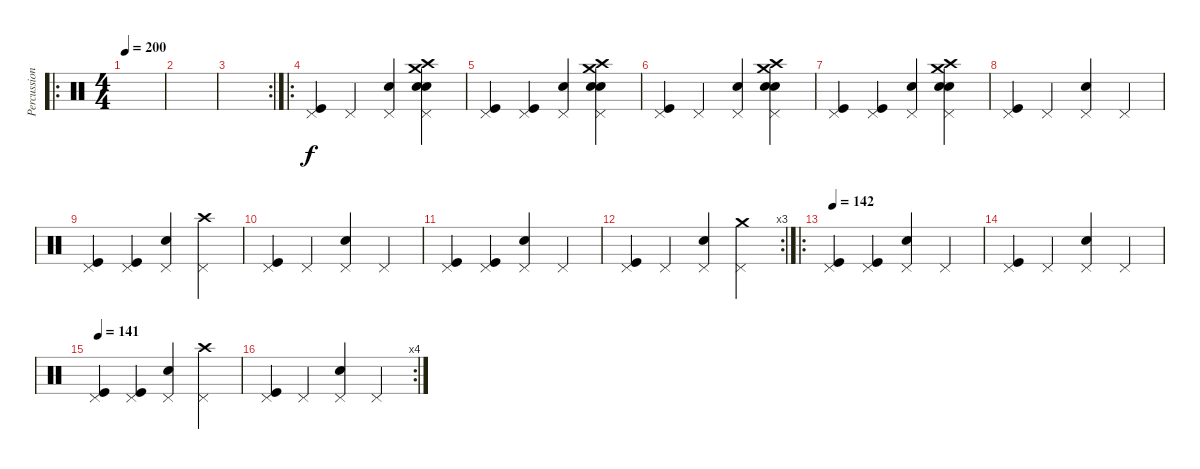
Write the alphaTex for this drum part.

\track ("Percussions" "Percussion") {instrument percussion}
\staff {score}
\articulation defaults
\ro
\ts (4 4)
\tempo 200
\clef neutral
\ks c
|
|
\rc 2
|
\ro
("Kick (hit)" "Pedal Hi-Hat (hit)").4 "Pedal Hi-Hat (hit)".4 ("Electric Snare (hit)" "Pedal Hi-Hat (hit)").4 ("Pedal Hi-Hat (hit)" "Electric Snare (hit)" "Snare (hit) 2" "Crash medium (hit)" "Crash high (hit)").4 |
("Kick (hit)" "Pedal Hi-Hat (hit)").4 ("Kick (hit)" "Pedal Hi-Hat (hit)").4 ("Electric Snare (hit)" "Pedal Hi-Hat (hit)").4 ("Pedal Hi-Hat (hit)" "Electric Snare (hit)" "Snare (hit) 2" "Crash medium (hit)" "Crash high (hit)").4 |
("Kick (hit)" "Pedal Hi-Hat (hit)").4 "Pedal Hi-Hat (hit)".4 ("Electric Snare (hit)" "Pedal Hi-Hat (hit)").4 ("Pedal Hi-Hat (hit)" "Electric Snare (hit)" "Snare (hit) 2" "Crash high (hit)" "Crash medium (hit)").4 |
("Kick (hit)" "Pedal Hi-Hat (hit)").4 ("Kick (hit)" "Pedal Hi-Hat (hit)").4 ("Electric Snare (hit)" "Pedal Hi-Hat (hit)").4 ("Pedal Hi-Hat (hit)" "Snare (hit) 2" "Electric Snare (hit)" "Crash high (hit)" "Crash medium (hit)").4 |
("Kick (hit)" "Pedal Hi-Hat (hit)").4 "Pedal Hi-Hat (hit)".4 ("Electric Snare (hit)" "Pedal Hi-Hat (hit)").4 "Pedal Hi-Hat (hit)".4 |
("Kick (hit)" "Pedal Hi-Hat (hit)").4 ("Kick (hit)" "Pedal Hi-Hat (hit)").4 ("Electric Snare (hit)" "Pedal Hi-Hat (hit)").4 ("Pedal Hi-Hat (hit)" "Crash high (hit)").4 |
("Kick (hit)" "Pedal Hi-Hat (hit)").4 "Pedal Hi-Hat (hit)".4 ("Electric Snare (hit)" "Pedal Hi-Hat (hit)").4 "Pedal Hi-Hat (hit)".4 |
("Kick (hit)" "Pedal Hi-Hat (hit)").4 ("Kick (hit)" "Pedal Hi-Hat (hit)").4 ("Electric Snare (hit)" "Pedal Hi-Hat (hit)").4 "Pedal Hi-Hat (hit)".4 |
\rc 3
("Kick (hit)" "Pedal Hi-Hat (hit)").4 "Pedal Hi-Hat (hit)".4 ("Electric Snare (hit)" "Pedal Hi-Hat (hit)").4 ("Pedal Hi-Hat (hit)" "Crash medium (hit)").4 |
\ro
\tempo 142
("Kick (hit)" "Pedal Hi-Hat (hit)").4 ("Kick (hit)" "Pedal Hi-Hat (hit)").4 ("Electric Snare (hit)" "Pedal Hi-Hat (hit)").4 "Pedal Hi-Hat (hit)".4 |
("Kick (hit)" "Pedal Hi-Hat (hit)").4 "Pedal Hi-Hat (hit)".4 ("Electric Snare (hit)" "Pedal Hi-Hat (hit)").4 "Pedal Hi-Hat (hit)".4 |
\tempo 141
("Kick (hit)" "Pedal Hi-Hat (hit)").4 ("Kick (hit)" "Pedal Hi-Hat (hit)").4 ("Electric Snare (hit)" "Pedal Hi-Hat (hit)").4 ("Pedal Hi-Hat (hit)" "Crash high (hit)").4 |
\rc 4
("Kick (hit)" "Pedal Hi-Hat (hit)").4 "Pedal Hi-Hat (hit)".4 ("Electric Snare (hit)" "Pedal Hi-Hat (hit)").4 "Pedal Hi-Hat (hit)".4
